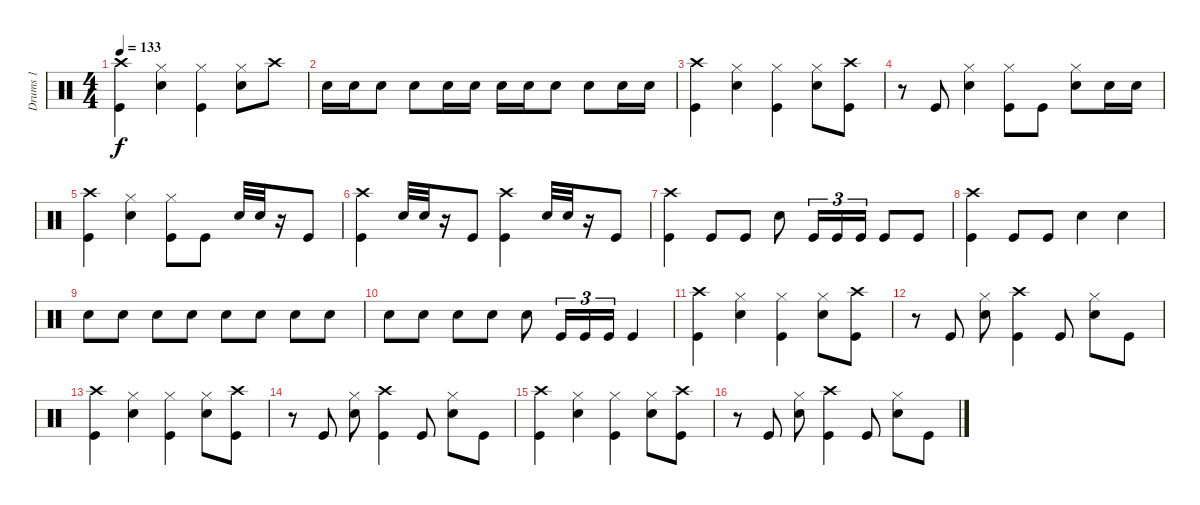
\track ("Drums 1" "Drums 1") {instrument percussion}
\staff {score}
\articulation defaults
\ts (4 4)
\tempo 133
\clef neutral
\ks c
("Crash high (hit)" "Kick (hit)").4{dy f} ("Hi-Hat (closed)" "Snare (hit) 2").4 ("Hi-Hat (closed)" "Kick (hit)").4 ("Hi-Hat (closed)" "Snare (hit) 2").8 "Crash high (hit)".8 |
"Snare (hit) 2".16 "Snare (hit) 2".16 "Snare (hit) 2".8 "Snare (hit) 2".8 "Snare (hit) 2".16 "Snare (hit) 2".16 "Snare (hit) 2".16 "Snare (hit) 2".16 "Snare (hit) 2".8 "Snare (hit) 2".8 "Snare (hit) 2".16 "Snare (hit) 2".16 |
("Crash high (hit)" "Kick (hit)").4 ("Hi-Hat (closed)" "Snare (hit) 2").4 ("Hi-Hat (closed)" "Kick (hit)").4 ("Hi-Hat (closed)" "Snare (hit) 2").8 ("Crash high (hit)" "Kick (hit)").8 |
r.8 "Kick (hit)".8 ("Hi-Hat (closed)" "Snare (hit) 2").4 ("Hi-Hat (closed)" "Kick (hit)").8 "Kick (hit)".8 ("Hi-Hat (closed)" "Snare (hit) 2").8 "Snare (hit) 2".16 "Snare (hit) 2".16 |
("Crash high (hit)" "Kick (hit)").4 ("Hi-Hat (closed)" "Snare (hit) 2").4 ("Hi-Hat (closed)" "Kick (hit)").8 "Kick (hit)".8 "Snare (hit) 2".32 "Snare (hit) 2".32 r.16 "Kick (hit)".8 |
("Crash high (hit)" "Kick (hit)").4 "Snare (hit) 2".32 "Snare (hit) 2".32 r.16 "Kick (hit)".8 ("Crash high (hit)" "Kick (hit)").4 "Snare (hit) 2".32 "Snare (hit) 2".32 r.16 "Kick (hit)".8 |
("Crash high (hit)" "Kick (hit)").4 "Kick (hit)".8 "Kick (hit)".8 "Snare (hit) 2".8 "Kick (hit)".16{tu (3 2)} "Kick (hit)".16{tu (3 2)} "Kick (hit)".16{tu (3 2)} "Kick (hit)".8 "Kick (hit)".8 |
("Crash high (hit)" "Kick (hit)").4 "Kick (hit)".8 "Kick (hit)".8 "Snare (hit) 2".4 "Snare (hit) 2".4 |
"Snare (hit) 2".8 "Snare (hit) 2".8 "Snare (hit) 2".8 "Snare (hit) 2".8 "Snare (hit) 2".8 "Snare (hit) 2".8 "Snare (hit) 2".8 "Snare (hit) 2".8 |
"Snare (hit) 2".8 "Snare (hit) 2".8 "Snare (hit) 2".8 "Snare (hit) 2".8 "Snare (hit) 2".8 "Kick (hit)".16{tu (3 2)} "Kick (hit)".16{tu (3 2)} "Kick (hit)".16{tu (3 2)} "Kick (hit)".4 |
("Crash high (hit)" "Kick (hit)").4 ("Hi-Hat (closed)" "Snare (hit) 2").4 ("Hi-Hat (closed)" "Kick (hit)").4 ("Hi-Hat (closed)" "Snare (hit) 2").8 ("Crash high (hit)" "Kick (hit)").8 |
r.8 "Kick (hit)".8 ("Hi-Hat (closed)" "Snare (hit) 2").8 ("Crash high (hit)" "Kick (hit)").4 "Kick (hit)".8 ("Hi-Hat (closed)" "Snare (hit) 2").8 "Kick (hit)".8 |
("Crash high (hit)" "Kick (hit)").4 ("Hi-Hat (closed)" "Snare (hit) 2").4 ("Hi-Hat (closed)" "Kick (hit)").4 ("Hi-Hat (closed)" "Snare (hit) 2").8 ("Crash high (hit)" "Kick (hit)").8 |
r.8 "Kick (hit)".8 ("Hi-Hat (closed)" "Snare (hit) 2").8 ("Crash high (hit)" "Kick (hit)").4 "Kick (hit)".8 ("Hi-Hat (closed)" "Snare (hit) 2").8 "Kick (hit)".8 |
("Crash high (hit)" "Kick (hit)").4 ("Hi-Hat (closed)" "Snare (hit) 2").4 ("Hi-Hat (closed)" "Kick (hit)").4 ("Hi-Hat (closed)" "Snare (hit) 2").8 ("Crash high (hit)" "Kick (hit)").8 |
r.8 "Kick (hit)".8 ("Hi-Hat (closed)" "Snare (hit) 2").8 ("Crash high (hit)" "Kick (hit)").4 "Kick (hit)".8 ("Hi-Hat (closed)" "Snare (hit) 2").8 "Kick (hit)".8
